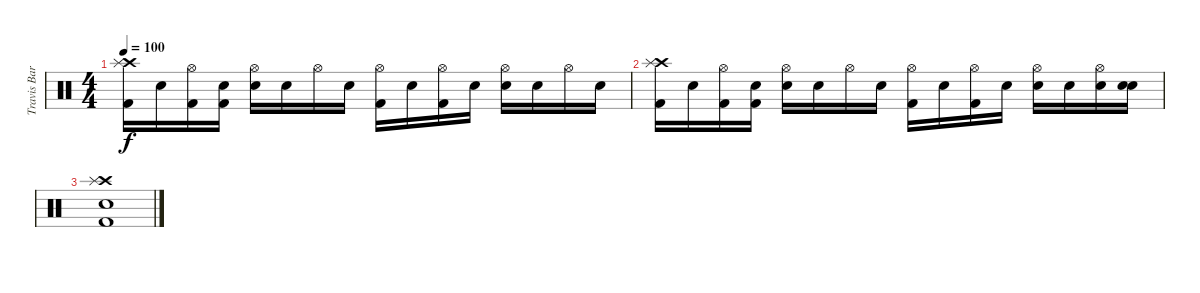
\track ("Travis Barker - Batterie" "Travis Bar") {instrument percussion}
\staff {score}
\articulation defaults
\ts (4 4)
\tempo 100
\clef neutral
\ks c
("Crash high (hit)" "Splash (hit)" "Kick (hit) 2").16{dy f} "Snare (hit)"{x}.16 ("Hi-Hat (open)" "Kick (hit) 2").16 ("Snare (hit)"{x} "Kick (hit) 2").16 ("Hi-Hat (open)" "Electric Snare (hit)").16 "Snare (hit)"{x}.16 "Hi-Hat (open)".16 "Snare (hit)"{x}.16 ("Hi-Hat (open)" "Kick (hit) 2").16 "Snare (hit)"{x}.16 ("Hi-Hat (open)" "Kick (hit) 2").16 "Snare (hit)"{x}.16 ("Hi-Hat (open)" "Electric Snare (hit)").16 "Snare (hit)"{x}.16 "Hi-Hat (open)".16 "Snare (hit)"{x}.16 |
("Crash high (hit)" "Splash (hit)" "Kick (hit) 2").16 "Snare (hit)"{x}.16 ("Hi-Hat (open)" "Kick (hit) 2").16 ("Snare (hit)"{x} "Kick (hit) 2").16 ("Hi-Hat (open)" "Electric Snare (hit)").16 "Snare (hit)"{x}.16 "Hi-Hat (open)".16 "Snare (hit)"{x}.16 ("Hi-Hat (open)" "Kick (hit) 2").16 "Snare (hit)"{x}.16 ("Hi-Hat (open)" "Kick (hit) 2").16 "Snare (hit)"{x}.16 ("Hi-Hat (open)" "Electric Snare (hit)").16 "Snare (hit)"{x}.16 ("Hi-Hat (open)" "Electric Snare (hit)").16 ("Snare (hit)"{x} "Electric Snare (hit)").16 |
("Crash high (hit)" "Splash (hit)" "Electric Snare (hit)" "Kick (hit) 2").1
